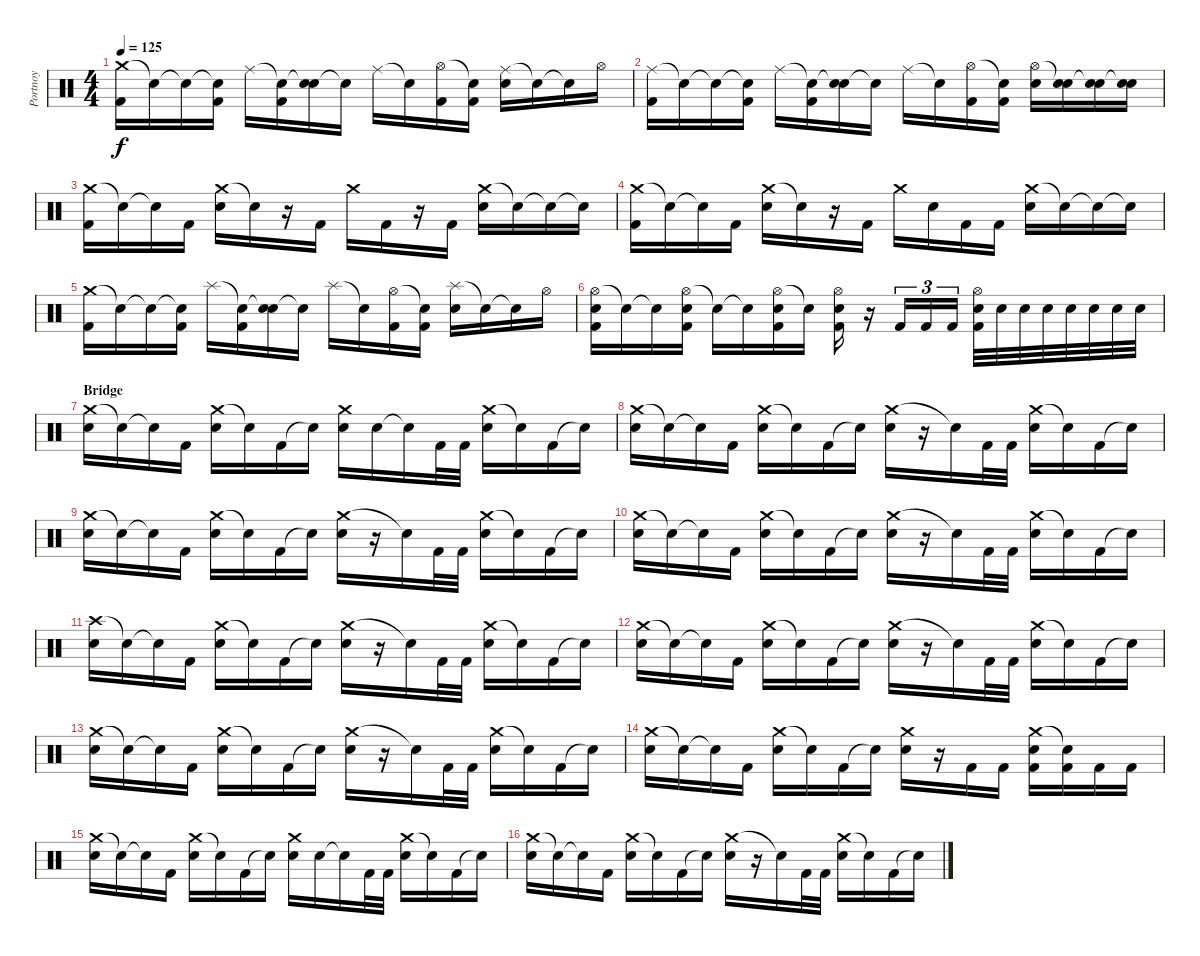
\track ("Portnoy" "Portnoy") {instrument percussion}
\staff {score}
\articulation defaults
\ts (4 4)
\tempo 125
\clef neutral
\ks c
("Crash medium (hit)" "Kick (hit) 2").16{dy f} "Snare (hit)"{t}.16 "Snare (hit)"{t}.16 ("Snare (hit)"{t} "Kick (hit) 2").16 "Ride (middle)".16 ("Snare (hit)"{t} "Kick (hit) 2").16 ("Snare (hit)"{t} "Snare (hit) 2").16 "Snare (hit)"{t}.16 "Ride (middle)".16 "Snare (hit)"{t}.16 ("Hi-Hat (open)" "Kick (hit) 2").16 ("Snare (hit)"{t} "Kick (hit) 2").16 ("Ride (middle)" "Snare (hit) 2").16 "Snare (hit)"{t}.16 "Snare (hit)"{t}.16 "Hi-Hat (open)".16 |
("Ride (middle)" "Kick (hit) 2").16 "Snare (hit)"{t}.16 "Snare (hit)"{t}.16 ("Snare (hit)"{t} "Kick (hit) 2").16 "Ride (middle)".16 ("Snare (hit)"{t} "Kick (hit) 2").16 ("Snare (hit)"{t} "Snare (hit) 2").16 "Snare (hit)"{t}.16 "Ride (middle)".16 "Snare (hit)"{t}.16 ("Hi-Hat (open)" "Kick (hit) 2").16 ("Snare (hit)"{t} "Kick (hit) 2").16 ("Hi-Hat (open)" "Snare (hit) 2").16 ("Snare (hit)"{t} "Snare (hit) 2").16 ("Snare (hit)"{t} "Snare (hit) 2").16 ("Snare (hit)"{t} "Snare (hit) 2").16 |
("Crash medium (hit)" "Kick (hit) 2").16 "Snare (hit)"{t}.16 "Snare (hit)"{t}.16 "Kick (hit) 2".16 ("Crash medium (hit)" "Snare (hit) 2").16 "Snare (hit)"{t}.16 r.16 "Kick (hit) 2".16 "Crash medium (hit)".16 "Kick (hit) 2".16 r.16 "Kick (hit) 2".16 ("Crash medium (hit)" "Snare (hit) 2").16 "Snare (hit)"{t}.16 "Snare (hit)"{t}.16 "Snare (hit)"{t}.16 |
("Crash medium (hit)" "Kick (hit) 2").16 "Snare (hit)"{t}.16 "Snare (hit)"{t}.16 "Kick (hit) 2".16 ("Crash medium (hit)" "Snare (hit) 2").16 "Snare (hit)"{t}.16 r.16 "Kick (hit) 2".16 "Crash medium (hit)".16 "Snare (hit) 2".16 "Kick (hit) 2".16 "Kick (hit) 2".16 ("Crash medium (hit)" "Snare (hit) 2").16 "Snare (hit)"{t}.16 "Snare (hit)"{t}.16 "Snare (hit)"{t}.16 |
("Crash medium (hit)" "Kick (hit) 2").16 "Snare (hit)"{t}.16 "Snare (hit)"{t}.16 ("Snare (hit)"{t} "Kick (hit) 2").16 "Splash (hit)".16 ("Snare (hit)"{t} "Kick (hit) 2").16 ("Snare (hit)"{t} "Snare (hit) 2").16 "Snare (hit)"{t}.16 "Splash (hit)".16 "Snare (hit)"{t}.16 ("Hi-Hat (open)" "Kick (hit) 2").16 ("Snare (hit)"{t} "Kick (hit) 2").16 ("Splash (hit)" "Snare (hit) 2").16 "Snare (hit)"{t}.16 "Snare (hit)"{t}.16 "Hi-Hat (open)".16 |
("Hi-Hat (open)" "Snare (hit) 2" "Kick (hit) 2").16 "Snare (hit)"{t}.16 "Snare (hit)"{t}.16 ("Hi-Hat (open)" "Snare (hit) 2" "Kick (hit) 2").16 "Snare (hit)"{t}.16 "Snare (hit)"{t}.16 ("Hi-Hat (open)" "Snare (hit) 2" "Kick (hit) 2").16 "Snare (hit)"{t}.16 ("Hi-Hat (open)" "Snare (hit) 2" "Kick (hit) 2").16 r.16 "Kick (hit) 2".16{tu (3 2)} "Kick (hit) 2".16{tu (3 2)} "Kick (hit) 2".16{tu (3 2)} ("Hi-Hat (open)" "Snare (hit) 2" "Kick (hit) 2").32 "Snare (hit) 2".32 "Snare (hit) 2".32 "Snare (hit) 2".32 "Snare (hit) 2".32 "Snare (hit) 2".32 "Snare (hit) 2".32 "Snare (hit) 2".32 |
\section ("" "Bridge")
("Crash medium (hit)" "Snare (hit) 2").16 "Snare (hit)"{t}.16 "Snare (hit)"{t}.16 "Kick (hit) 2".16 ("Crash medium (hit)" "Snare (hit) 2").16 "Snare (hit)"{t}.16 "Kick (hit) 2".16 "Snare (hit)"{t}.16 ("Crash medium (hit)" "Snare (hit) 2").16 "Snare (hit) 2".16 "Snare (hit)"{t}.16 "Kick (hit) 2".32 "Kick (hit) 2".32 ("Crash medium (hit)" "Snare (hit) 2").16 "Snare (hit)"{t}.16 "Kick (hit) 2".16 "Snare (hit)"{t}.16 |
("Crash medium (hit)" "Snare (hit) 2").16 "Snare (hit)"{t}.16 "Snare (hit)"{t}.16 "Kick (hit) 2".16 ("Crash medium (hit)" "Snare (hit) 2").16 "Snare (hit)"{t}.16 "Kick (hit) 2".16 "Snare (hit)"{t}.16 ("Crash medium (hit)" "Snare (hit) 2").16 r.16 "Snare (hit)"{t}.16 "Kick (hit) 2".32 "Kick (hit) 2".32 ("Crash medium (hit)" "Snare (hit) 2").16 "Snare (hit)"{t}.16 "Kick (hit) 2".16 "Snare (hit)"{t}.16 |
("Crash medium (hit)" "Snare (hit) 2").16 "Snare (hit)"{t}.16 "Snare (hit)"{t}.16 "Kick (hit) 2".16 ("Crash medium (hit)" "Snare (hit) 2").16 "Snare (hit)"{t}.16 "Kick (hit) 2".16 "Snare (hit)"{t}.16 ("Crash medium (hit)" "Snare (hit) 2").16 r.16 "Snare (hit)"{t}.16 "Kick (hit) 2".32 "Kick (hit) 2".32 ("Crash medium (hit)" "Snare (hit) 2").16 "Snare (hit)"{t}.16 "Kick (hit) 2".16 "Snare (hit)"{t}.16 |
("Crash medium (hit)" "Snare (hit) 2").16 "Snare (hit)"{t}.16 "Snare (hit)"{t}.16 "Kick (hit) 2".16 ("Crash medium (hit)" "Snare (hit) 2").16 "Snare (hit)"{t}.16 "Kick (hit) 2".16 "Snare (hit)"{t}.16 ("Crash medium (hit)" "Snare (hit) 2").16 r.16 "Snare (hit)"{t}.16 "Kick (hit) 2".32 "Kick (hit) 2".32 ("Crash medium (hit)" "Snare (hit) 2").16 "Snare (hit)"{t}.16 "Kick (hit) 2".16 "Snare (hit)"{t}.16 |
("Crash high (hit)" "Snare (hit) 2").16 "Snare (hit)"{t}.16 "Snare (hit)"{t}.16 "Kick (hit) 2".16 ("Crash medium (hit)" "Snare (hit) 2").16 "Snare (hit)"{t}.16 "Kick (hit) 2".16 "Snare (hit)"{t}.16 ("Crash medium (hit)" "Snare (hit) 2").16 r.16 "Snare (hit)"{t}.16 "Kick (hit) 2".32 "Kick (hit) 2".32 ("Crash medium (hit)" "Snare (hit) 2").16 "Snare (hit)"{t}.16 "Kick (hit) 2".16 "Snare (hit)"{t}.16 |
("Crash medium (hit)" "Snare (hit) 2").16 "Snare (hit)"{t}.16 "Snare (hit)"{t}.16 "Kick (hit) 2".16 ("Crash medium (hit)" "Snare (hit) 2").16 "Snare (hit)"{t}.16 "Kick (hit) 2".16 "Snare (hit)"{t}.16 ("Crash medium (hit)" "Snare (hit) 2").16 r.16 "Snare (hit)"{t}.16 "Kick (hit) 2".32 "Kick (hit) 2".32 ("Crash medium (hit)" "Snare (hit) 2").16 "Snare (hit)"{t}.16 "Kick (hit) 2".16 "Snare (hit)"{t}.16 |
("Crash medium (hit)" "Snare (hit) 2").16 "Snare (hit)"{t}.16 "Snare (hit)"{t}.16 "Kick (hit) 2".16 ("Crash medium (hit)" "Snare (hit) 2").16 "Snare (hit)"{t}.16 "Kick (hit) 2".16 "Snare (hit)"{t}.16 ("Crash medium (hit)" "Snare (hit) 2").16 r.16 "Snare (hit)"{t}.16 "Kick (hit) 2".32 "Kick (hit) 2".32 ("Crash medium (hit)" "Snare (hit) 2").16 "Snare (hit)"{t}.16 "Kick (hit) 2".16 "Snare (hit)"{t}.16 |
("Crash medium (hit)" "Snare (hit) 2").16 "Snare (hit)"{t}.16 "Snare (hit)"{t}.16 "Kick (hit) 2".16 ("Crash medium (hit)" "Snare (hit) 2").16 "Snare (hit)"{t}.16 "Kick (hit) 2".16 "Snare (hit)"{t}.16 ("Crash medium (hit)" "Snare (hit) 2").16 r.16 "Kick (hit) 2".16 "Kick (hit) 2".16 ("Crash medium (hit)" "Snare (hit) 2" "Kick (hit) 2").16 ("Snare (hit)"{t} "Kick (hit) 2").16 "Kick (hit) 2".16 "Kick (hit) 2".16 |
("Crash medium (hit)" "Snare (hit) 2").16 "Snare (hit)"{t}.16 "Snare (hit)"{t}.16 "Kick (hit) 2".16 ("Crash medium (hit)" "Snare (hit) 2").16 "Snare (hit)"{t}.16 "Kick (hit) 2".16 "Snare (hit)"{t}.16 ("Crash medium (hit)" "Snare (hit) 2").16 "Snare (hit) 2".16 "Snare (hit)"{t}.16 "Kick (hit) 2".32 "Kick (hit) 2".32 ("Crash medium (hit)" "Snare (hit) 2").16 "Snare (hit)"{t}.16 "Kick (hit) 2".16 "Snare (hit)"{t}.16 |
("Crash medium (hit)" "Snare (hit) 2").16 "Snare (hit)"{t}.16 "Snare (hit)"{t}.16 "Kick (hit) 2".16 ("Crash medium (hit)" "Snare (hit) 2").16 "Snare (hit)"{t}.16 "Kick (hit) 2".16 "Snare (hit)"{t}.16 ("Crash medium (hit)" "Snare (hit) 2").16 r.16 "Snare (hit)"{t}.16 "Kick (hit) 2".32 "Kick (hit) 2".32 ("Crash medium (hit)" "Snare (hit) 2").16 "Snare (hit)"{t}.16 "Kick (hit) 2".16 "Snare (hit)"{t}.16
